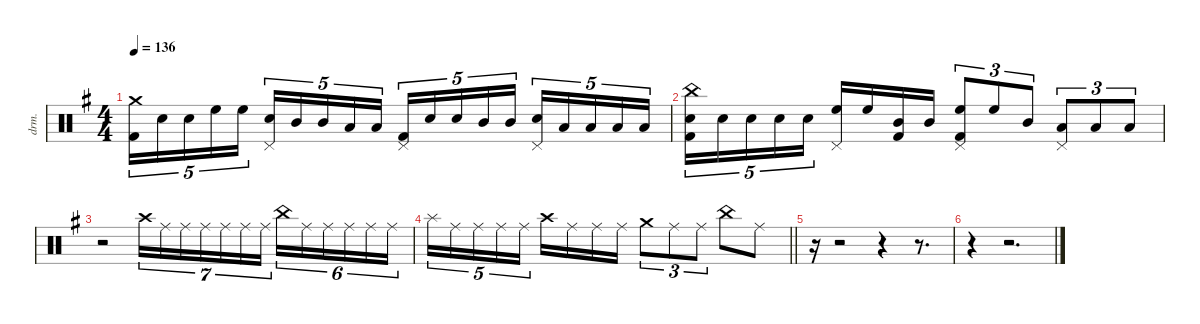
\defaultSystemsLayout 4
\hideDynamics
\bracketExtendMode nobrackets
\otherSystemsTrackNameOrientation horizontal
\track ("Batterie" "drm.") {instrument percussion}
\staff {score}
\articulation defaults
\ts (4 4)
\tempo 136
\clef neutral
\ks g
("Crash medium (hit)"{acc forcenatural} "Kick (hit) 2"{acc forcenatural}).16{tu (5 4) dy f beam Down} "Snare (hit) 2"{acc forcenatural}.16{tu (5 4) beam Down} "Snare (hit) 2"{acc forcenatural}.16{tu (5 4) beam Down} "High Floor Tom (hit)"{acc forcenatural}.16{tu (5 4) beam Down} "High Floor Tom (hit)"{acc forcenatural}.16{tu (5 4) beam Down} ("Pedal Hi-Hat (hit)"{acc forcenatural} "Snare (hit) 2"{acc forcenatural}).16{tu (5 4) beam Up} "Mid Tom (hit)"{acc forcenatural}.16{tu (5 4) beam Up} "Mid Tom (hit)"{acc forcenatural}.16{tu (5 4) beam Up} "Low Tom (hit)"{acc forcenatural}.16{tu (5 4) beam Up} "Low Tom (hit)"{acc forcenatural}.16{tu (5 4) beam Up} ("Pedal Hi-Hat (hit)"{acc forcenatural} "Kick (hit) 2"{acc forcenatural}).16{tu (5 4) beam Up} "Snare (hit) 2"{acc forcenatural}.16{tu (5 4) beam Up} "Snare (hit) 2"{acc forcenatural}.16{tu (5 4) beam Up} "Mid Tom (hit)"{acc forcenatural}.16{tu (5 4) beam Up} "Mid Tom (hit)"{acc forcenatural}.16{tu (5 4) beam Up} ("Pedal Hi-Hat (hit)"{acc forcenatural} "Snare (hit) 2"{acc forcenatural}).16{tu (5 4) beam Up} "Low Tom (hit)"{acc forcenatural}.16{tu (5 4) beam Up} "Low Tom (hit)"{acc forcenatural}.16{tu (5 4) beam Up} "Low Floor Tom (hit)"{acc forcenatural}.16{tu (5 4) beam Up} "Low Floor Tom (hit)"{acc forcenatural}.16{tu (5 4) beam Up} |
("China (hit)"{acc forcenatural} "Snare (hit) 2"{acc forcenatural} "Kick (hit) 2"{acc forcenatural}).16{tu (5 4) beam Down} "Snare (hit) 2"{acc forcenatural}.16{tu (5 4) beam Down} "Snare (hit) 2"{acc forcenatural}.16{tu (5 4) beam Down} "Snare (hit) 2"{acc forcenatural}.16{tu (5 4) beam Down} "Snare (hit) 2"{acc forcenatural}.16{tu (5 4) beam Down} ("Pedal Hi-Hat (hit)"{acc forcenatural} "High Floor Tom (hit)"{acc forcenatural}).16{beam Up} "High Floor Tom (hit)"{acc forcenatural}.16{beam Up} ("Mid Tom (hit)"{acc forcenatural} "Kick (hit) 2"{acc forcenatural}).16{beam Up} "Mid Tom (hit)"{acc forcenatural}.16{beam Up} ("Pedal Hi-Hat (hit)"{acc forcenatural} "High Floor Tom (hit)"{acc forcenatural} "Kick (hit) 2"{acc forcenatural}).8{tu (3 2) beam Up} "High Floor Tom (hit)"{acc forcenatural}.8{tu (3 2) beam Up} "Mid Tom (hit)"{acc forcenatural}.8{tu (3 2) beam Up} ("Pedal Hi-Hat (hit)"{acc forcenatural} "Low Tom (hit)"{acc forcenatural}).8{tu (3 2) beam Up} "Low Tom (hit)"{acc forcenatural}.8{tu (3 2) beam Up} "Low Floor Tom (hit)"{acc forcenatural}.8{tu (3 2) beam Up} |
r.2{beam Down} "Crash high (hit)"{acc forcenatural}.16{tu (7 4) beam Down} "Ride (middle)"{acc forcenatural}.16{tu (7 4) beam Down} "Ride (middle)"{acc forcenatural}.16{tu (7 4) beam Down} "Ride (middle)"{acc forcenatural}.16{tu (7 4) beam Down} "Ride (middle)"{acc forcenatural}.16{tu (7 4) beam Down} "Ride (middle)"{acc forcenatural}.16{tu (7 4) beam Down} "Ride (middle)"{acc forcenatural}.16{tu (7 4) beam Down} "China (hit)"{acc forcenatural}.16{tu (6 4) beam Down} "Ride (middle)"{acc forcenatural}.16{tu (6 4) beam Down} "Ride (middle)"{acc forcenatural}.16{tu (6 4) beam Down} "Ride (middle)"{acc forcenatural}.16{tu (6 4) beam Down} "Ride (middle)"{acc forcenatural}.16{tu (6 4) beam Down} "Ride (middle)"{acc forcenatural}.16{tu (6 4) beam Down} |
\barLineRight lightlight "Splash (hit)"{acc forcenatural}.16{tu (5 4) beam Down} "Ride (middle)"{acc forcenatural}.16{tu (5 4) beam Down} "Ride (middle)"{acc forcenatural}.16{tu (5 4) beam Down} "Ride (middle)"{acc forcenatural}.16{tu (5 4) beam Down} "Ride (middle)"{acc forcenatural}.16{tu (5 4) beam Down} "Crash high (hit)"{acc forcenatural}.16{beam Down} "Ride (middle)"{acc forcenatural}.16{beam Down} "Ride (middle)"{acc forcenatural}.16{beam Down} "Ride (middle)"{acc forcenatural}.16{beam Down} "Crash medium (hit)"{acc forcenatural}.8{tu (3 2) beam Down} "Ride (middle)"{acc forcenatural}.8{tu (3 2) beam Down} "Ride (middle)"{acc forcenatural}.8{tu (3 2) beam Down} "China (hit)"{acc forcenatural}.8{beam Down} "Ride (middle)"{acc forcenatural}.8{beam Down}
|
r.16{beam Down} r.2{beam Down} r.4{beam Down} r.8{d beam Down} |
r.4{beam Down} r.2{d beam Down}
